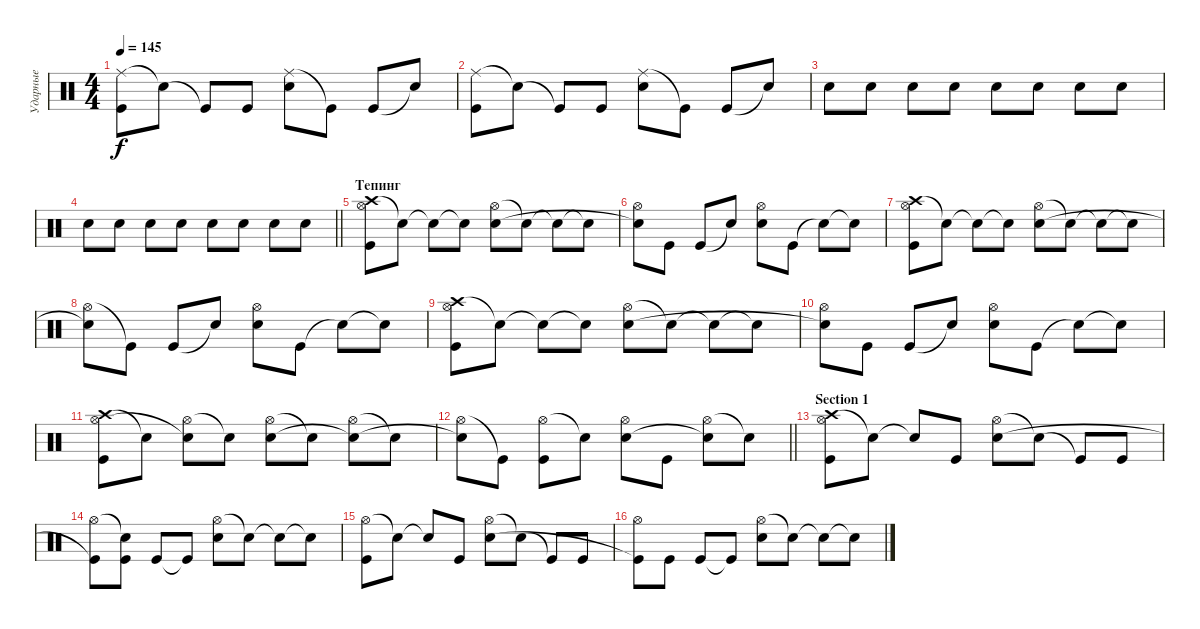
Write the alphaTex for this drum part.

\track ("Ударные" "Ударные") {instrument percussion}
\staff {score}
\articulation defaults
\ts (4 4)
\tempo 145
\clef neutral
\ks c
("Ride (middle)" "Kick (hit)").8{dy f} "Snare (hit)"{t}.8 "Kick (hit)"{t}.8 "Kick (hit)".8 ("Ride (middle)" "Snare (hit) 2").8 "Kick (hit)"{t}.8 "Kick (hit)".8 "Snare (hit)"{t}.8 |
("Ride (middle)" "Kick (hit)").8 "Snare (hit)"{t}.8 "Kick (hit)"{t}.8 "Kick (hit)".8 ("Ride (middle)" "Snare (hit) 2").8 "Kick (hit)"{t}.8 "Kick (hit)".8 "Snare (hit)"{t}.8 |
"Snare (hit) 2".8{volume 4} "Snare (hit) 2".8{volume 4} "Snare (hit) 2".8{volume 5} "Snare (hit) 2".8{volume 6} "Snare (hit) 2".8{volume 6} "Snare (hit) 2".8{volume 7} "Snare (hit) 2".8{volume 8} "Snare (hit) 2".8{volume 8} |
\barLineRight lightlight "Snare (hit) 2".8{volume 9} "Snare (hit) 2".8{volume 10} "Snare (hit) 2".8{volume 11} "Snare (hit) 2".8{volume 12} "Snare (hit) 2".8{volume 13} "Snare (hit) 2".8{volume 14} "Snare (hit) 2".8{volume 15} "Snare (hit) 2".8{volume 16}
|
\section ("" "Тепинг")
("Crash high (hit)" "Hi-Hat (open)" "Kick (hit)").8 "Snare (hit)"{t}.8 "Snare (hit)"{t}.8 "Snare (hit)"{t}.8 ("Hi-Hat (open)" "Snare (hit) 2").8 "Snare (hit)"{t}.8 "Snare (hit)"{t}.8 "Snare (hit)"{t}.8 |
("Hi-Hat (open)" "Snare (hit)"{t}).8 "Kick (hit)".8 "Kick (hit)".8 "Snare (hit)"{t}.8 ("Hi-Hat (open)" "Snare (hit) 2").8 "Kick (hit)".8 "Snare (hit)"{t}.8 "Snare (hit)"{t}.8 |
("Crash high (hit)" "Hi-Hat (open)" "Kick (hit)").8 "Snare (hit)"{t}.8 "Snare (hit)"{t}.8 "Snare (hit)"{t}.8 ("Hi-Hat (open)" "Snare (hit) 2").8 "Snare (hit)"{t}.8 "Snare (hit)"{t}.8 "Snare (hit)"{t}.8 |
("Hi-Hat (open)" "Snare (hit)"{t}).8 "Kick (hit)"{t}.8 "Kick (hit)".8 "Snare (hit)"{t}.8 ("Hi-Hat (open)" "Snare (hit) 2").8 "Kick (hit)".8 "Snare (hit)"{t}.8 "Snare (hit)"{t}.8 |
("Crash high (hit)" "Hi-Hat (open)" "Kick (hit)").8 "Snare (hit)"{t}.8 "Snare (hit)"{t}.8 "Snare (hit)"{t}.8 ("Hi-Hat (open)" "Snare (hit) 2").8 "Snare (hit)"{t}.8 "Snare (hit)"{t}.8 "Snare (hit)"{t}.8 |
("Hi-Hat (open)" "Snare (hit)"{t}).8 "Kick (hit)".8 "Kick (hit)".8 "Snare (hit)"{t}.8 ("Hi-Hat (open)" "Snare (hit) 2").8 "Kick (hit)".8 "Snare (hit)"{t}.8 "Snare (hit)"{t}.8 |
("Crash high (hit)" "Hi-Hat (open)" "Kick (hit)").8 "Snare (hit)"{t}.8 ("Hi-Hat (open)" "Snare (hit)"{t}).8 "Snare (hit)"{t}.8 ("Hi-Hat (open)" "Snare (hit) 2").8 "Snare (hit)"{t}.8 ("Hi-Hat (open)" "Snare (hit)"{t}).8 "Snare (hit)"{t}.8 |
\barLineRight lightlight
("Hi-Hat (open)" "Snare (hit)"{t}).8 "Kick (hit)"{t}.8 ("Hi-Hat (open)" "Kick (hit)").8 "Snare (hit)"{t}.8 ("Hi-Hat (open)" "Snare (hit) 2").8 "Kick (hit)".8 ("Hi-Hat (open)" "Snare (hit)"{t}).8 "Snare (hit)"{t}.8 |
\section ("" "Section 1")
("Crash high (hit)" "Hi-Hat (open)" "Kick (hit)").8 "Snare (hit)"{t}.8 "Snare (hit)"{t}.8 "Kick (hit)".8 ("Hi-Hat (open)" "Snare (hit) 2").8 "Snare (hit)"{t}.8 "Kick (hit)"{t}.8 "Kick (hit)".8 |
("Hi-Hat (open)" "Kick (hit)"{t}).8 ("Snare (hit)"{t} "Kick (hit)").8 "Kick (hit)".8 "Kick (hit)"{t}.8 ("Hi-Hat (open)" "Snare (hit) 2").8 "Snare (hit)"{t}.8 "Snare (hit)"{t}.8 "Snare (hit)"{t}.8 |
("Hi-Hat (open)" "Kick (hit)").8 "Snare (hit)"{t}.8 "Snare (hit)"{t}.8 "Kick (hit)".8 ("Hi-Hat (open)" "Snare (hit) 2").8 "Snare (hit)"{t}.8 "Kick (hit)"{t}.8 "Kick (hit)".8 |
("Hi-Hat (open)" "Kick (hit)"{t}).8 "Kick (hit)".8 "Kick (hit)".8 "Kick (hit)"{t}.8 ("Hi-Hat (open)" "Snare (hit) 2").8 "Snare (hit)"{t}.8 "Snare (hit)"{t}.8 "Snare (hit)"{t}.8
